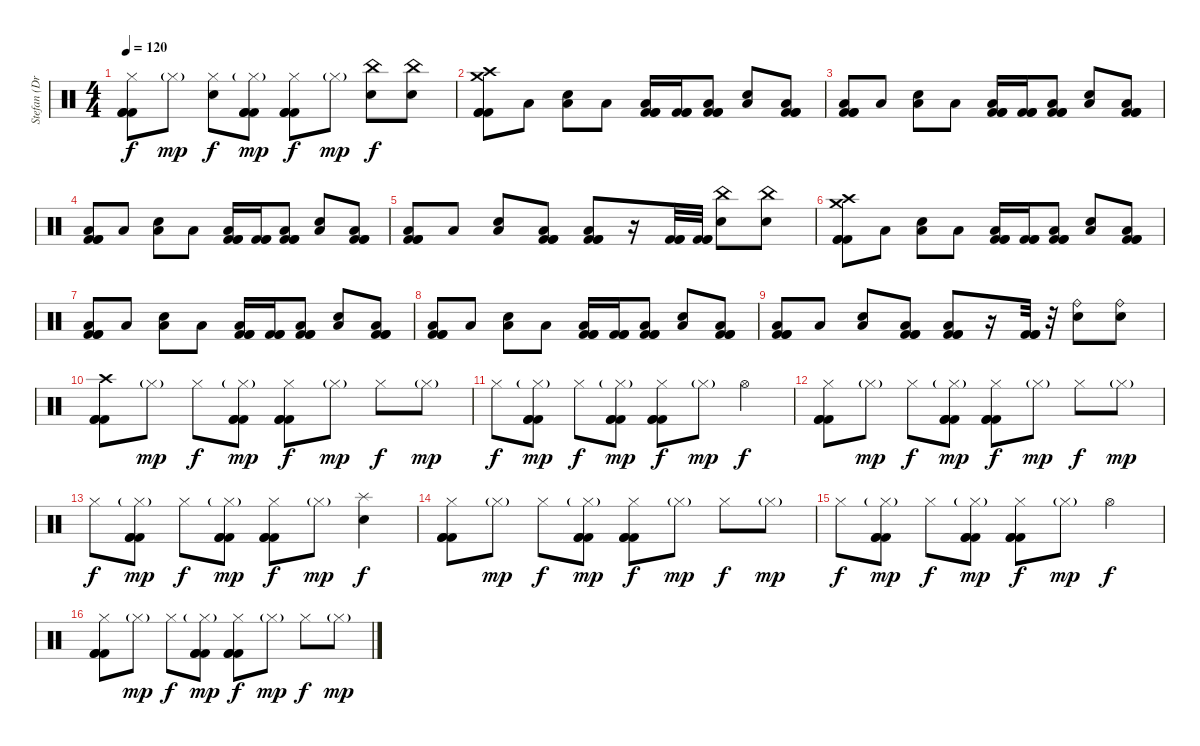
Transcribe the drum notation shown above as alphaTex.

\track ("Stefan (Drums)" "Stefan (Dr") {instrument percussion}
\staff {score}
\articulation defaults
\ts (4 4)
\tempo 120
\clef neutral
\ks c
("Hi-Hat (closed)" "Kick (hit) 2" "Kick (hit) 2" "Kick (hit) 2").8{dy f} "Hi-Hat (closed)"{g}.8{dy mp} ("Hi-Hat (closed)" "Snare (hit) 2").8{dy f} ("Hi-Hat (closed)"{g} "Kick (hit) 2" "Kick (hit) 2" "Kick (hit) 2").8{dy mp} ("Hi-Hat (closed)" "Kick (hit) 2" "Kick (hit) 2" "Kick (hit) 2").8{dy f} "Hi-Hat (closed)"{g}.8{dy mp} ("China (hit)" "Snare (hit) 2").8{dy f} ("China (hit)" "Snare (hit) 2").8 |
("Crash high (hit)" "Crash medium (hit)" "Kick (hit) 2" "Kick (hit) 2" "Kick (hit) 2").8 "Low Tom (hit)".8 ("Snare (hit) 2" "Low Tom (hit)").8 "Low Tom (hit)".8 ("Low Tom (hit)" "Kick (hit) 2" "Kick (hit) 2" "Kick (hit) 2").16 ("Kick (hit) 2" "Kick (hit) 2" "Kick (hit) 2").16 ("Low Tom (hit)" "Kick (hit) 2" "Kick (hit) 2" "Kick (hit) 2").8 ("Snare (hit) 2" "Low Tom (hit)").8 ("Low Tom (hit)" "Kick (hit) 2" "Kick (hit) 2" "Kick (hit) 2").8 |
("Low Tom (hit)" "Kick (hit) 2" "Kick (hit) 2" "Kick (hit) 2").8 "Low Tom (hit)".8 ("Snare (hit) 2" "Low Tom (hit)").8 "Low Tom (hit)".8 ("Low Tom (hit)" "Kick (hit) 2" "Kick (hit) 2" "Kick (hit) 2").16 ("Kick (hit) 2" "Kick (hit) 2" "Kick (hit) 2").16 ("Low Tom (hit)" "Kick (hit) 2" "Kick (hit) 2" "Kick (hit) 2").8 ("Snare (hit) 2" "Low Tom (hit)").8 ("Low Tom (hit)" "Kick (hit) 2" "Kick (hit) 2" "Kick (hit) 2").8 |
("Low Tom (hit)" "Kick (hit) 2" "Kick (hit) 2" "Kick (hit) 2").8 "Low Tom (hit)".8 ("Snare (hit) 2" "Low Tom (hit)").8 "Low Tom (hit)".8 ("Low Tom (hit)" "Kick (hit) 2" "Kick (hit) 2" "Kick (hit) 2").16 ("Kick (hit) 2" "Kick (hit) 2" "Kick (hit) 2").16 ("Low Tom (hit)" "Kick (hit) 2" "Kick (hit) 2" "Kick (hit) 2").8 ("Snare (hit) 2" "Low Tom (hit)").8 ("Low Tom (hit)" "Kick (hit) 2" "Kick (hit) 2" "Kick (hit) 2").8 |
("Low Tom (hit)" "Kick (hit) 2" "Kick (hit) 2" "Kick (hit) 2").8 "Low Tom (hit)".8 ("Snare (hit) 2" "Low Tom (hit)").8 ("Low Tom (hit)" "Kick (hit) 2" "Kick (hit) 2" "Kick (hit) 2").8 ("Low Tom (hit)" "Kick (hit) 2" "Kick (hit) 2" "Kick (hit) 2").8 r.16 ("Kick (hit) 2" "Kick (hit) 2" "Kick (hit) 2").32 ("Kick (hit) 2" "Kick (hit) 2" "Kick (hit) 2").32 ("China (hit)" "Snare (hit) 2").8 ("China (hit)" "Snare (hit) 2").8 |
("Crash high (hit)" "Crash medium (hit)" "Kick (hit) 2" "Kick (hit) 2" "Kick (hit) 2").8 "Low Tom (hit)".8 ("Snare (hit) 2" "Low Tom (hit)").8 "Low Tom (hit)".8 ("Low Tom (hit)" "Kick (hit) 2" "Kick (hit) 2" "Kick (hit) 2").16 ("Kick (hit) 2" "Kick (hit) 2" "Kick (hit) 2").16 ("Low Tom (hit)" "Kick (hit) 2" "Kick (hit) 2" "Kick (hit) 2").8 ("Snare (hit) 2" "Low Tom (hit)").8 ("Low Tom (hit)" "Kick (hit) 2" "Kick (hit) 2" "Kick (hit) 2").8 |
("Low Tom (hit)" "Kick (hit) 2" "Kick (hit) 2" "Kick (hit) 2").8 "Low Tom (hit)".8 ("Snare (hit) 2" "Low Tom (hit)").8 "Low Tom (hit)".8 ("Low Tom (hit)" "Kick (hit) 2" "Kick (hit) 2" "Kick (hit) 2").16 ("Kick (hit) 2" "Kick (hit) 2" "Kick (hit) 2").16 ("Low Tom (hit)" "Kick (hit) 2" "Kick (hit) 2" "Kick (hit) 2").8 ("Snare (hit) 2" "Low Tom (hit)").8 ("Low Tom (hit)" "Kick (hit) 2" "Kick (hit) 2" "Kick (hit) 2").8 |
("Low Tom (hit)" "Kick (hit) 2" "Kick (hit) 2" "Kick (hit) 2").8 "Low Tom (hit)".8 ("Snare (hit) 2" "Low Tom (hit)").8 "Low Tom (hit)".8 ("Low Tom (hit)" "Kick (hit) 2" "Kick (hit) 2" "Kick (hit) 2").16 ("Kick (hit) 2" "Kick (hit) 2" "Kick (hit) 2").16 ("Low Tom (hit)" "Kick (hit) 2" "Kick (hit) 2" "Kick (hit) 2").8 ("Snare (hit) 2" "Low Tom (hit)").8 ("Low Tom (hit)" "Kick (hit) 2" "Kick (hit) 2" "Kick (hit) 2").8 |
("Low Tom (hit)" "Kick (hit) 2" "Kick (hit) 2" "Kick (hit) 2").8 "Low Tom (hit)".8 ("Snare (hit) 2" "Low Tom (hit)").8 ("Low Tom (hit)" "Kick (hit) 2" "Kick (hit) 2" "Kick (hit) 2").8 ("Low Tom (hit)" "Kick (hit) 2" "Kick (hit) 2" "Kick (hit) 2").8 r.16 ("Kick (hit) 2" "Kick (hit) 2" "Kick (hit) 2").32 r.32 ("Ride (bell)" "Snare (hit) 2").8 ("Ride (bell)" "Snare (hit) 2").8 |
("Crash high (hit)" "Kick (hit) 2" "Kick (hit) 2" "Kick (hit) 2").8 "Hi-Hat (closed)"{g}.8{dy mp} "Hi-Hat (closed)".8{dy f} ("Hi-Hat (closed)"{g} "Kick (hit) 2" "Kick (hit) 2" "Kick (hit) 2").8{dy mp} ("Hi-Hat (closed)" "Kick (hit) 2" "Kick (hit) 2" "Kick (hit) 2").8{dy f} "Hi-Hat (closed)"{g}.8{dy mp} "Hi-Hat (closed)".8{dy f} "Hi-Hat (closed)"{g}.8{dy mp} |
"Hi-Hat (closed)".8{dy f} ("Hi-Hat (closed)"{g} "Kick (hit) 2" "Kick (hit) 2" "Kick (hit) 2").8{dy mp} "Hi-Hat (closed)".8{dy f} ("Hi-Hat (closed)"{g} "Kick (hit) 2" "Kick (hit) 2" "Kick (hit) 2").8{dy mp} ("Hi-Hat (closed)" "Kick (hit) 2" "Kick (hit) 2" "Kick (hit) 2").8{dy f} "Hi-Hat (closed)"{g}.8{dy mp} "Hi-Hat (open)".4{dy f} |
("Hi-Hat (closed)" "Kick (hit) 2" "Kick (hit) 2" "Kick (hit) 2").8 "Hi-Hat (closed)"{g}.8{dy mp} "Hi-Hat (closed)".8{dy f} ("Hi-Hat (closed)"{g} "Kick (hit) 2" "Kick (hit) 2" "Kick (hit) 2").8{dy mp} ("Hi-Hat (closed)" "Kick (hit) 2" "Kick (hit) 2" "Kick (hit) 2").8{dy f} "Hi-Hat (closed)"{g}.8{dy mp} "Hi-Hat (closed)".8{dy f} "Hi-Hat (closed)"{g}.8{dy mp} |
"Hi-Hat (closed)".8{dy f} ("Hi-Hat (closed)"{g} "Kick (hit) 2" "Kick (hit) 2" "Kick (hit) 2").8{dy mp} "Hi-Hat (closed)".8{dy f} ("Hi-Hat (closed)"{g} "Kick (hit) 2" "Kick (hit) 2" "Kick (hit) 2").8{dy mp} ("Hi-Hat (closed)" "Kick (hit) 2" "Kick (hit) 2" "Kick (hit) 2").8{dy f} "Hi-Hat (closed)"{g}.8{dy mp} ("Splash (hit)" "Electric Snare (hit)").4{dy f} |
("Hi-Hat (closed)" "Kick (hit) 2" "Kick (hit) 2" "Kick (hit) 2").8 "Hi-Hat (closed)"{g}.8{dy mp} "Hi-Hat (closed)".8{dy f} ("Hi-Hat (closed)"{g} "Kick (hit) 2" "Kick (hit) 2" "Kick (hit) 2").8{dy mp} ("Hi-Hat (closed)" "Kick (hit) 2" "Kick (hit) 2" "Kick (hit) 2").8{dy f} "Hi-Hat (closed)"{g}.8{dy mp} "Hi-Hat (closed)".8{dy f} "Hi-Hat (closed)"{g}.8{dy mp} |
"Hi-Hat (closed)".8{dy f} ("Hi-Hat (closed)"{g} "Kick (hit) 2" "Kick (hit) 2" "Kick (hit) 2").8{dy mp} "Hi-Hat (closed)".8{dy f} ("Hi-Hat (closed)"{g} "Kick (hit) 2" "Kick (hit) 2" "Kick (hit) 2").8{dy mp} ("Hi-Hat (closed)" "Kick (hit) 2" "Kick (hit) 2" "Kick (hit) 2").8{dy f} "Hi-Hat (closed)"{g}.8{dy mp} "Hi-Hat (open)".4{dy f} |
("Hi-Hat (closed)" "Kick (hit) 2" "Kick (hit) 2" "Kick (hit) 2").8 "Hi-Hat (closed)"{g}.8{dy mp} "Hi-Hat (closed)".8{dy f} ("Hi-Hat (closed)"{g} "Kick (hit) 2" "Kick (hit) 2" "Kick (hit) 2").8{dy mp} ("Hi-Hat (closed)" "Kick (hit) 2" "Kick (hit) 2" "Kick (hit) 2").8{dy f} "Hi-Hat (closed)"{g}.8{dy mp} "Hi-Hat (closed)".8{dy f} "Hi-Hat (closed)"{g}.8{dy mp}
